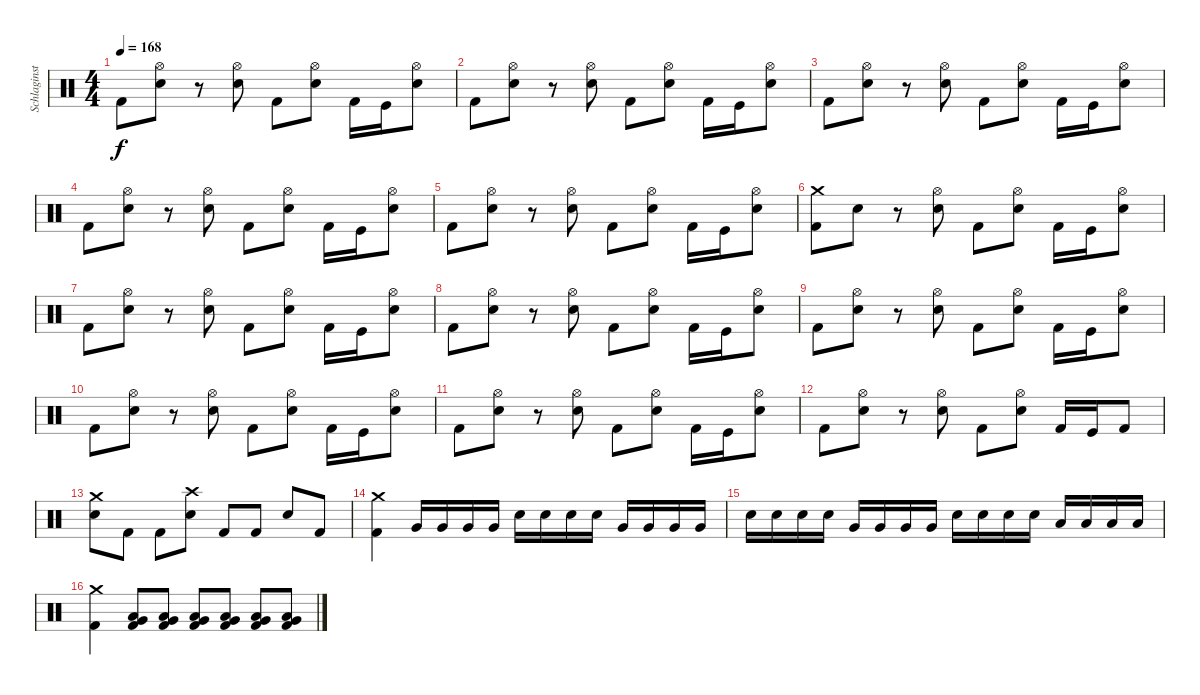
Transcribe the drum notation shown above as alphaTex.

\track ("Schlaginstrumente - Auswahl" "Schlaginst") {instrument percussion}
\staff
\articulation defaults
\ts (4 4)
\tempo 168
\clef neutral
\ks c "Kick (hit) 2".8{dy f}
("Hi-Hat (open)" "Electric Snare (hit)").8 r.8 ("Hi-Hat (open)" "Electric Snare (hit)").8 "Kick (hit) 2".8 ("Hi-Hat (open)" "Electric Snare (hit)").8 "Kick (hit) 2".16 "Kick (hit)".16 ("Hi-Hat (open)" "Electric Snare (hit)").8 |
"Kick (hit) 2".8 ("Hi-Hat (open)" "Electric Snare (hit)").8 r.8 ("Hi-Hat (open)" "Electric Snare (hit)").8 "Kick (hit) 2".8 ("Hi-Hat (open)" "Electric Snare (hit)").8 "Kick (hit) 2".16 "Kick (hit)".16 ("Hi-Hat (open)" "Electric Snare (hit)").8 |
"Kick (hit) 2".8 ("Hi-Hat (open)" "Electric Snare (hit)").8 r.8 ("Hi-Hat (open)" "Electric Snare (hit)").8 "Kick (hit) 2".8 ("Hi-Hat (open)" "Electric Snare (hit)").8 "Kick (hit) 2".16 "Kick (hit)".16 ("Hi-Hat (open)" "Electric Snare (hit)").8 |
"Kick (hit) 2".8 ("Hi-Hat (open)" "Electric Snare (hit)").8 r.8 ("Hi-Hat (open)" "Electric Snare (hit)").8 "Kick (hit) 2".8 ("Hi-Hat (open)" "Electric Snare (hit)").8 "Kick (hit) 2".16 "Kick (hit)".16 ("Hi-Hat (open)" "Electric Snare (hit)").8 |
"Kick (hit) 2".8 ("Hi-Hat (open)" "Electric Snare (hit)").8 r.8 ("Hi-Hat (open)" "Electric Snare (hit)").8 "Kick (hit) 2".8 ("Hi-Hat (open)" "Electric Snare (hit)").8 "Kick (hit) 2".16 "Kick (hit)".16 ("Hi-Hat (open)" "Electric Snare (hit)").8 |
("Crash medium (hit)" "Kick (hit) 2").8 "Electric Snare (hit)".8 r.8 ("Hi-Hat (open)" "Electric Snare (hit)").8 "Kick (hit) 2".8 ("Hi-Hat (open)" "Electric Snare (hit)").8 "Kick (hit) 2".16 "Kick (hit)".16 ("Hi-Hat (open)" "Electric Snare (hit)").8 |
"Kick (hit) 2".8 ("Hi-Hat (open)" "Electric Snare (hit)").8 r.8 ("Hi-Hat (open)" "Electric Snare (hit)").8 "Kick (hit) 2".8 ("Hi-Hat (open)" "Electric Snare (hit)").8 "Kick (hit) 2".16 "Kick (hit)".16 ("Hi-Hat (open)" "Electric Snare (hit)").8 |
"Kick (hit) 2".8 ("Hi-Hat (open)" "Electric Snare (hit)").8 r.8 ("Hi-Hat (open)" "Electric Snare (hit)").8 "Kick (hit) 2".8 ("Hi-Hat (open)" "Electric Snare (hit)").8 "Kick (hit) 2".16 "Kick (hit)".16 ("Hi-Hat (open)" "Electric Snare (hit)").8 |
"Kick (hit) 2".8 ("Hi-Hat (open)" "Electric Snare (hit)").8 r.8 ("Hi-Hat (open)" "Electric Snare (hit)").8 "Kick (hit) 2".8 ("Hi-Hat (open)" "Electric Snare (hit)").8 "Kick (hit) 2".16 "Kick (hit)".16 ("Hi-Hat (open)" "Electric Snare (hit)").8 |
"Kick (hit) 2".8 ("Hi-Hat (open)" "Electric Snare (hit)").8 r.8 ("Hi-Hat (open)" "Electric Snare (hit)").8 "Kick (hit) 2".8 ("Hi-Hat (open)" "Electric Snare (hit)").8 "Kick (hit) 2".16 "Kick (hit)".16 ("Hi-Hat (open)" "Electric Snare (hit)").8 |
"Kick (hit) 2".8 ("Hi-Hat (open)" "Electric Snare (hit)").8 r.8 ("Hi-Hat (open)" "Electric Snare (hit)").8 "Kick (hit) 2".8 ("Hi-Hat (open)" "Electric Snare (hit)").8 "Kick (hit) 2".16 "Kick (hit)".16 ("Hi-Hat (open)" "Electric Snare (hit)").8 |
"Kick (hit) 2".8 ("Hi-Hat (open)" "Electric Snare (hit)").8 r.8 ("Hi-Hat (open)" "Electric Snare (hit)").8 "Kick (hit) 2".8 ("Hi-Hat (open)" "Electric Snare (hit)").8 "Kick (hit) 2".16 "Kick (hit)".16 "Kick (hit) 2".8 |
("Crash medium (hit)" "Electric Snare (hit)").8 "Kick (hit) 2".8 "Kick (hit) 2".8 ("Crash high (hit)" "Electric Snare (hit)").8 "Kick (hit) 2".8 "Kick (hit) 2".8 "Electric Snare (hit)".8 "Kick (hit) 2".8 |
("Crash medium (hit)" "Kick (hit) 2").4 "Very Low Tom (hit)".16 "Very Low Tom (hit)".16 "Very Low Tom (hit)".16 "Very Low Tom (hit)".16 "Electric Snare (hit)".16 "Electric Snare (hit)".16 "Electric Snare (hit)".16 "Electric Snare (hit)".16 "Very Low Tom (hit)".16 "Very Low Tom (hit)".16 "Very Low Tom (hit)".16 "Very Low Tom (hit)".16 |
"Electric Snare (hit)".16 "Electric Snare (hit)".16 "Electric Snare (hit)".16 "Electric Snare (hit)".16 "Very Low Tom (hit)".16 "Very Low Tom (hit)".16 "Very Low Tom (hit)".16 "Very Low Tom (hit)".16 "Electric Snare (hit)".16 "Electric Snare (hit)".16 "Electric Snare (hit)".16 "Electric Snare (hit)".16 "Low Floor Tom (hit)".16 "Low Floor Tom (hit)".16 "Low Floor Tom (hit)".16 "Low Floor Tom (hit)".16 |
("Crash medium (hit)" "Kick (hit) 2").4 ("Very Low Tom (hit)" "Low Floor Tom (hit)" "Kick (hit) 2").8 ("Very Low Tom (hit)" "Low Floor Tom (hit)" "Kick (hit) 2").8 ("Very Low Tom (hit)" "Low Floor Tom (hit)" "Kick (hit) 2").8 ("Very Low Tom (hit)" "Low Floor Tom (hit)" "Kick (hit) 2").8 ("Very Low Tom (hit)" "Low Floor Tom (hit)" "Kick (hit) 2").8 ("Very Low Tom (hit)" "Low Floor Tom (hit)" "Kick (hit) 2").8
